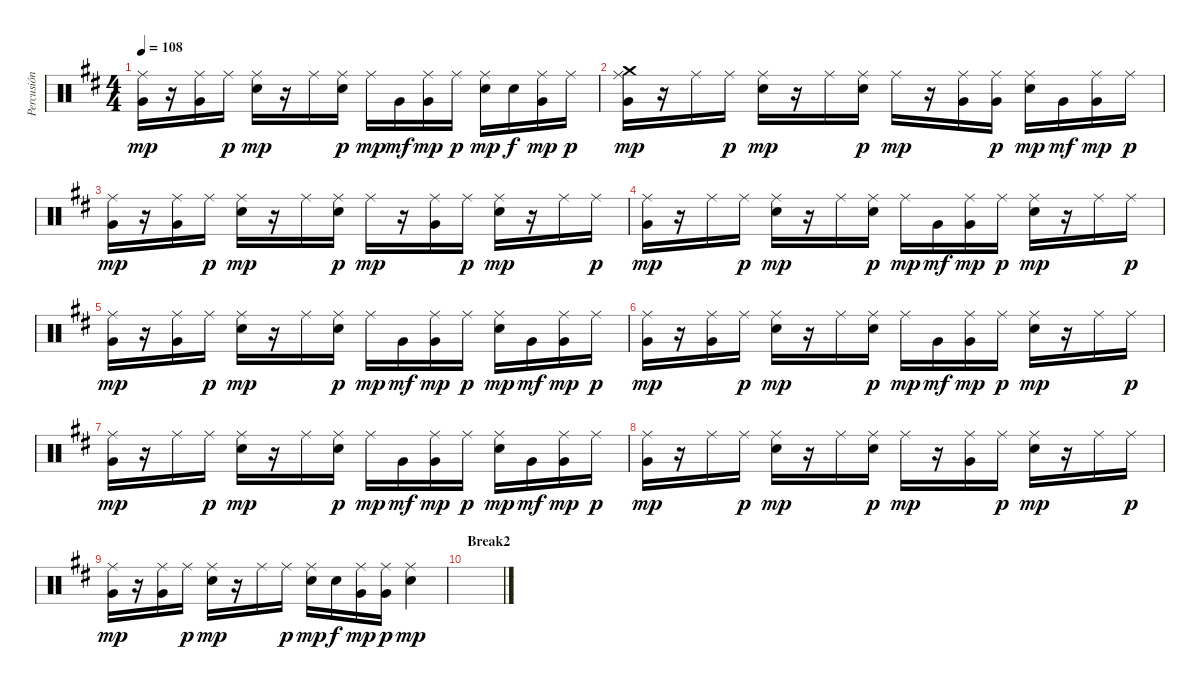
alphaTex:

\track ("Percusión" "Percusión") {instrument percussion}
\staff {score}
\articulation defaults
\ts (4 4)
\tempo 108
\clef neutral
\ks bminor
("Very Low Tom (hit)" "Ride (middle)").16{dy mp} r.16 ("Very Low Tom (hit)" "Ride (middle)").16 "Ride (middle)".16{dy p} ("Electric Snare (hit)" "Ride (middle)").16{dy mp} r.16 "Ride (middle)".16 ("Electric Snare (hit)" "Ride (middle)").16{dy p} "Ride (middle)".16{dy mp} "Very Low Tom (hit)".16{dy mf} ("Very Low Tom (hit)" "Ride (middle)").16{dy mp} "Ride (middle)".16{dy p} ("Electric Snare (hit)" "Ride (middle)").16{dy mp} "Electric Snare (hit)".16{dy f} ("Very Low Tom (hit)" "Ride (middle)").16{dy mp} "Ride (middle)".16{dy p} |
("Crash medium (hit)" "Very Low Tom (hit)" "Ride (middle)").16{dy mp} r.16 "Ride (middle)".16 "Ride (middle)".16{dy p} ("Electric Snare (hit)" "Ride (middle)").16{dy mp} r.16 "Ride (middle)".16 ("Electric Snare (hit)" "Ride (middle)").16{dy p} "Ride (middle)".16{dy mp} r.16 ("Very Low Tom (hit)" "Ride (middle)").16 ("Very Low Tom (hit)" "Ride (middle)").16{dy p} ("Electric Snare (hit)" "Ride (middle)").16{dy mp} "Very Low Tom (hit)".16{dy mf} ("Very Low Tom (hit)" "Ride (middle)").16{dy mp} "Ride (middle)".16{dy p} |
("Very Low Tom (hit)" "Ride (middle)").16{dy mp} r.16 ("Very Low Tom (hit)" "Ride (middle)").16 "Ride (middle)".16{dy p} ("Electric Snare (hit)" "Ride (middle)").16{dy mp} r.16 "Ride (middle)".16 ("Electric Snare (hit)" "Ride (middle)").16{dy p} "Ride (middle)".16{dy mp} r.16 ("Very Low Tom (hit)" "Ride (middle)").16 "Ride (middle)".16{dy p} ("Electric Snare (hit)" "Ride (middle)").16{dy mp} r.16 "Ride (middle)".16 "Ride (middle)".16{dy p} |
("Very Low Tom (hit)" "Ride (middle)").16{dy mp} r.16 "Ride (middle)".16 "Ride (middle)".16{dy p} ("Electric Snare (hit)" "Ride (middle)").16{dy mp} r.16 "Ride (middle)".16 ("Electric Snare (hit)" "Ride (middle)").16{dy p} "Ride (middle)".16{dy mp} "Very Low Tom (hit)".16{dy mf} ("Very Low Tom (hit)" "Ride (middle)").16{dy mp} "Ride (middle)".16{dy p} ("Electric Snare (hit)" "Ride (middle)").16{dy mp} r.16 "Ride (middle)".16 "Ride (middle)".16{dy p} |
("Very Low Tom (hit)" "Ride (middle)").16{dy mp} r.16 ("Very Low Tom (hit)" "Ride (middle)").16 "Ride (middle)".16{dy p} ("Electric Snare (hit)" "Ride (middle)").16{dy mp} r.16 "Ride (middle)".16 ("Electric Snare (hit)" "Ride (middle)").16{dy p} "Ride (middle)".16{dy mp} "Very Low Tom (hit)".16{dy mf} ("Very Low Tom (hit)" "Ride (middle)").16{dy mp} "Ride (middle)".16{dy p} ("Electric Snare (hit)" "Ride (middle)").16{dy mp} "Very Low Tom (hit)".16{dy mf} ("Very Low Tom (hit)" "Ride (middle)").16{dy mp} "Ride (middle)".16{dy p} |
("Very Low Tom (hit)" "Ride (middle)").16{dy mp} r.16 ("Very Low Tom (hit)" "Ride (middle)").16 "Ride (middle)".16{dy p} ("Electric Snare (hit)" "Ride (middle)").16{dy mp} r.16 "Ride (middle)".16 ("Electric Snare (hit)" "Ride (middle)").16{dy p} "Ride (middle)".16{dy mp} "Very Low Tom (hit)".16{dy mf} ("Very Low Tom (hit)" "Ride (middle)").16{dy mp} "Ride (middle)".16{dy p} ("Electric Snare (hit)" "Ride (middle)").16{dy mp} r.16 "Ride (middle)".16 "Ride (middle)".16{dy p} |
("Very Low Tom (hit)" "Ride (middle)").16{dy mp} r.16 "Ride (middle)".16 "Ride (middle)".16{dy p} ("Electric Snare (hit)" "Ride (middle)").16{dy mp} r.16 "Ride (middle)".16 ("Electric Snare (hit)" "Ride (middle)").16{dy p} "Ride (middle)".16{dy mp} "Very Low Tom (hit)".16{dy mf} ("Very Low Tom (hit)" "Ride (middle)").16{dy mp} "Ride (middle)".16{dy p} ("Electric Snare (hit)" "Ride (middle)").16{dy mp} "Very Low Tom (hit)".16{dy mf} ("Very Low Tom (hit)" "Ride (middle)").16{dy mp} "Ride (middle)".16{dy p} |
("Very Low Tom (hit)" "Ride (middle)").16{dy mp} r.16 "Ride (middle)".16 "Ride (middle)".16{dy p} ("Electric Snare (hit)" "Ride (middle)").16{dy mp} r.16 "Ride (middle)".16 ("Electric Snare (hit)" "Ride (middle)").16{dy p} "Ride (middle)".16{dy mp} r.16 ("Very Low Tom (hit)" "Ride (middle)").16 "Ride (middle)".16{dy p} ("Electric Snare (hit)" "Ride (middle)").16{dy mp} r.16 "Ride (middle)".16 "Ride (middle)".16{dy p} |
("Very Low Tom (hit)" "Ride (middle)").16{dy mp} r.16 ("Very Low Tom (hit)" "Ride (middle)").16 "Ride (middle)".16{dy p} ("Electric Snare (hit)" "Ride (middle)").16{dy mp} r.16 "Ride (middle)".16 "Ride (middle)".16{dy p} ("Electric Snare (hit)" "Ride (middle)").16{dy mp} "Electric Snare (hit)".16{dy f} ("Very Low Tom (hit)" "Ride (middle)").16{dy mp} ("Very Low Tom (hit)" "Ride (middle)").16{dy p} ("Electric Snare (hit)" "Ride (middle)").4{dy mp} |
\section ("" "Break2")
